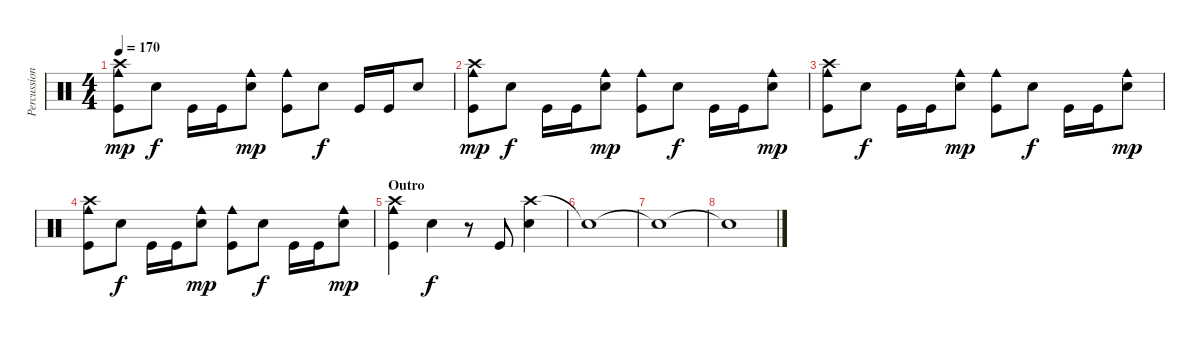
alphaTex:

\track ("Percussion" "Percussion") {instrument percussion}
\staff {score}
\articulation defaults
\ts (4 4)
\tempo 170
\clef neutral
\ks c
("Cowbell medium (hit)" "Crash high (hit)" "Kick (hit)").8{dy mp} "Electric Snare (hit)".8{dy f} "Kick (hit)".16 "Kick (hit)".16 ("Cowbell medium (hit)" "Electric Snare (hit)").8{dy mp} ("Cowbell medium (hit)" "Kick (hit)").8 "Electric Snare (hit)".8{dy f} "Kick (hit)".16 "Kick (hit)".16 "Electric Snare (hit)".8 |
("Cowbell medium (hit)" "Crash high (hit)" "Kick (hit)").8{dy mp} "Electric Snare (hit)".8{dy f} "Kick (hit)".16 "Kick (hit)".16 ("Cowbell medium (hit)" "Electric Snare (hit)").8{dy mp} ("Cowbell medium (hit)" "Kick (hit)").8 "Electric Snare (hit)".8{dy f} "Kick (hit)".16 "Kick (hit)".16 ("Cowbell medium (hit)" "Electric Snare (hit)").8{dy mp} |
("Cowbell medium (hit)" "Crash high (hit)" "Kick (hit)").8 "Electric Snare (hit)".8{dy f} "Kick (hit)".16 "Kick (hit)".16 ("Cowbell medium (hit)" "Electric Snare (hit)").8{dy mp} ("Cowbell medium (hit)" "Kick (hit)").8 "Electric Snare (hit)".8{dy f} "Kick (hit)".16 "Kick (hit)".16 ("Cowbell medium (hit)" "Electric Snare (hit)").8{dy mp} |
("Cowbell medium (hit)" "Crash high (hit)" "Kick (hit)").8 "Electric Snare (hit)".8{dy f} "Kick (hit)".16 "Kick (hit)".16 ("Cowbell medium (hit)" "Electric Snare (hit)").8{dy mp} ("Cowbell medium (hit)" "Kick (hit)").8 "Electric Snare (hit)".8{dy f} "Kick (hit)".16 "Kick (hit)".16 ("Cowbell medium (hit)" "Electric Snare (hit)").8{dy mp} |
\section ("" "Outro")
("Cowbell medium (hit)" "Crash high (hit)" "Kick (hit)").4 "Electric Snare (hit)".4{dy f} r.8 "Kick (hit)".8 ("Crash high (hit)" "Electric Snare (hit)").4 |
"Snare (hit)"{t}.1 |
"Snare (hit)"{t}.1 |
"Snare (hit)"{t}.1
